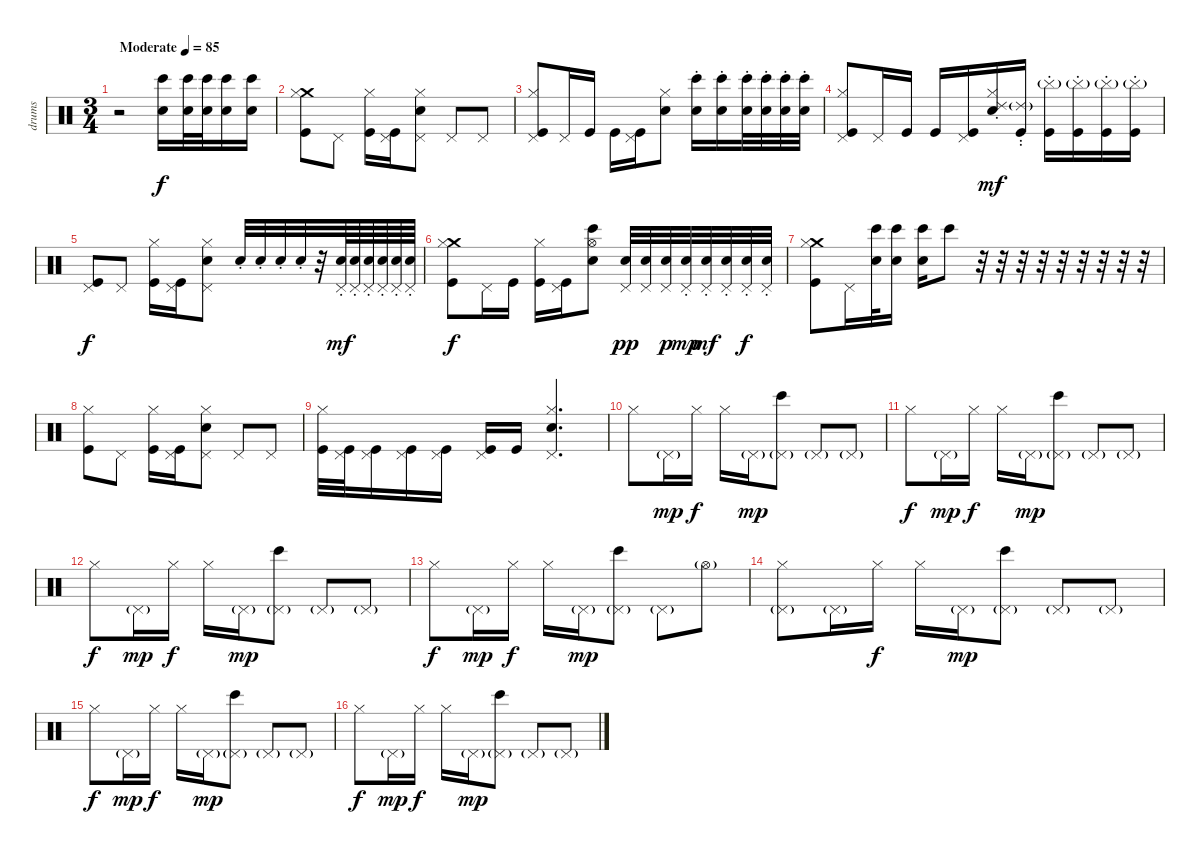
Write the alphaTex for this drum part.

\track ("drums" "drums") {instrument percussion}
\staff {score}
\articulation defaults
\ts (3 4)
\tempo (85 "Moderate")
\clef neutral
\ks c
r.2{dy f} ("Bongo High (hit)" "Snare (hit) 2").16 ("Bongo High (hit)" "Snare (hit) 2").32 ("Bongo High (hit)" "Snare (hit) 2").32 ("Bongo High (hit)" "Snare (hit) 2").16 ("Bongo High (hit)" "Snare (hit) 2").16 |
("Crash medium (hit)" "Kick (hit)" "Hi-Hat (closed)").8 "Pedal Hi-Hat (hit)".8 ("Kick (hit)" "Hi-Hat (closed)").16 ("Kick (hit)" "Pedal Hi-Hat (hit)").16 ("Hi-Hat (closed)" "Snare (hit) 2" "Pedal Hi-Hat (hit)").8 "Pedal Hi-Hat (hit)".8 "Pedal Hi-Hat (hit)".8 |
("Hi-Hat (closed)" "Kick (hit)" "Pedal Hi-Hat (hit)").8 "Pedal Hi-Hat (hit)".16 "Kick (hit)".16 "Kick (hit)".16 ("Kick (hit)" "Pedal Hi-Hat (hit)").16 ("Hi-Hat (closed)" "Snare (hit) 2").8 ("Snare (hit) 2"{st} "Bongo High (hit)"{st}).16 ("Snare (hit) 2"{st} "Bongo High (hit)"{st}).16 ("Snare (hit) 2" "Bongo High (hit)"{st}).32 ("Snare (hit) 2"{st} "Bongo High (hit)"{st}).32 ("Snare (hit) 2"{st} "Bongo High (hit)"{st}).32 ("Snare (hit) 2"{st} "Bongo High (hit)"{st}).32 |
("Hi-Hat (closed)" "Kick (hit)" "Pedal Hi-Hat (hit)").8 "Pedal Hi-Hat (hit)".16 "Kick (hit)".16 "Kick (hit)".16 ("Kick (hit)" "Pedal Hi-Hat (hit)").16 ("Hi-Hat (closed)" "Snare (hit) 2" "Ride (choke) 2").16{dy mf} ("Kick (hit)" "Ride (choke) 2"{g st}).16 ("Kick (hit)" "Cymbal (hit)"{g st}).16 ("Kick (hit)" "Cymbal (hit)"{g st}).16 ("Kick (hit)" "Cymbal (hit)"{g st}).16 ("Kick (hit)" "Cymbal (hit)"{g st}).16 |
("Kick (hit)" "Pedal Hi-Hat (hit)").8{dy f} "Pedal Hi-Hat (hit)".8 ("Kick (hit)" "Hi-Hat (closed)").16 ("Kick (hit)" "Pedal Hi-Hat (hit)").16 ("Hi-Hat (closed)" "Snare (hit) 2" "Pedal Hi-Hat (hit)").8 "Snare (hit) 2"{st}.32 "Snare (hit) 2"{st}.32 "Snare (hit) 2"{st}.32 "Snare (hit) 2"{st}.32 r.32 ("Pedal Hi-Hat (hit)"{st} "Snare (hit) 2"{st}).64{dy mf} ("Pedal Hi-Hat (hit)"{st} "Snare (hit) 2"{st}).64 ("Pedal Hi-Hat (hit)"{st} "Snare (hit) 2"{st}).64 ("Pedal Hi-Hat (hit)"{st} "Snare (hit) 2"{st}).64 ("Pedal Hi-Hat (hit)" "Snare (hit) 2"{st}).64 ("Pedal Hi-Hat (hit)"{st} "Snare (hit) 2"{st}).64 |
("Crash medium (hit)" "Kick (hit)" "Hi-Hat (closed)").8{dy f} "Pedal Hi-Hat (hit)".16 "Kick (hit)".16 ("Kick (hit)" "Hi-Hat (closed)").16 ("Kick (hit)" "Pedal Hi-Hat (hit)").16 ("Hi-Hat (open)" "Snare (hit) 2" "Bongo High (hit)").8 ("Snare (hit) 2" "Pedal Hi-Hat (hit)").32{dy pp} ("Snare (hit) 2" "Pedal Hi-Hat (hit)").32 ("Snare (hit) 2" "Pedal Hi-Hat (hit)").32{dy p} ("Snare (hit) 2"{st} "Pedal Hi-Hat (hit)"{st}).32{dy mp} ("Snare (hit) 2"{st} "Pedal Hi-Hat (hit)"{st}).32{dy mf} ("Snare (hit) 2"{st} "Pedal Hi-Hat (hit)"{st}).32 ("Snare (hit) 2"{st} "Pedal Hi-Hat (hit)"{st}).32{dy f} ("Snare (hit) 2"{st} "Pedal Hi-Hat (hit)"{st}).32 |
("Crash medium (hit)" "Kick (hit)" "Hi-Hat (closed)").8 "Pedal Hi-Hat (hit)".16 ("Snare (hit) 2" "Bongo High (hit)").32 ("Snare (hit) 2" "Bongo High (hit)").16 ("Snare (hit) 2" "Bongo High (hit)").16 "Bongo High (hit)".8 r.32 r.32 r.32 r.32 r.32 r.32 r.32 r.32 r.32 |
("Kick (hit)" "Hi-Hat (closed)").8 "Pedal Hi-Hat (hit)".8 ("Kick (hit)" "Hi-Hat (closed)").16 ("Kick (hit)" "Pedal Hi-Hat (hit)").16 ("Hi-Hat (closed)" "Snare (hit) 2" "Pedal Hi-Hat (hit)").8 "Pedal Hi-Hat (hit)".8 "Pedal Hi-Hat (hit)".8 |
("Kick (hit)" "Hi-Hat (closed)").32 ("Kick (hit)" "Pedal Hi-Hat (hit)").32 ("Kick (hit)" "Pedal Hi-Hat (hit)").16 ("Kick (hit)" "Pedal Hi-Hat (hit)").16 ("Kick (hit)" "Pedal Hi-Hat (hit)").16 ("Kick (hit)" "Pedal Hi-Hat (hit)").16 "Kick (hit)".16 ("Hi-Hat (closed)" "Snare (hit) 2" "Pedal Hi-Hat (hit)").4{d} |
"Hi-Hat (closed)".8 "Pedal Hi-Hat (hit)"{g}.16{dy mp} "Hi-Hat (closed)".16{dy f} "Hi-Hat (closed)".16 "Pedal Hi-Hat (hit)"{g}.16{dy mp} ("Bongo High (hit)" "Pedal Hi-Hat (hit)"{g}).8 "Pedal Hi-Hat (hit)"{g}.8 "Pedal Hi-Hat (hit)"{g}.8 |
"Hi-Hat (closed)".8{dy f} "Pedal Hi-Hat (hit)"{g}.16{dy mp} "Hi-Hat (closed)".16{dy f} "Hi-Hat (closed)".16 "Pedal Hi-Hat (hit)"{g}.16{dy mp} ("Bongo High (hit)" "Pedal Hi-Hat (hit)"{g}).8 "Pedal Hi-Hat (hit)"{g}.8 "Pedal Hi-Hat (hit)"{g}.8 |
"Hi-Hat (closed)".8{dy f} "Pedal Hi-Hat (hit)"{g}.16{dy mp} "Hi-Hat (closed)".16{dy f} "Hi-Hat (closed)".16 "Pedal Hi-Hat (hit)"{g}.16{dy mp} ("Bongo High (hit)" "Pedal Hi-Hat (hit)"{g}).8 "Pedal Hi-Hat (hit)"{g}.8 "Pedal Hi-Hat (hit)"{g}.8 |
"Hi-Hat (closed)".8{dy f} "Pedal Hi-Hat (hit)"{g}.16{dy mp} "Hi-Hat (closed)".16{dy f} "Hi-Hat (closed)".16 "Pedal Hi-Hat (hit)"{g}.16{dy mp} ("Bongo High (hit)" "Pedal Hi-Hat (hit)"{g}).8 "Pedal Hi-Hat (hit)"{g}.8 "Hi-Hat (open)"{g}.8 |
("Hi-Hat (closed)" "Pedal Hi-Hat (hit)"{g}).8 "Pedal Hi-Hat (hit)"{g}.16 "Hi-Hat (closed)".16{dy f} "Hi-Hat (closed)".16 "Pedal Hi-Hat (hit)"{g}.16{dy mp} ("Bongo High (hit)" "Pedal Hi-Hat (hit)"{g}).8 "Pedal Hi-Hat (hit)"{g}.8 "Pedal Hi-Hat (hit)"{g}.8 |
"Hi-Hat (closed)".8{dy f} "Pedal Hi-Hat (hit)"{g}.16{dy mp} "Hi-Hat (closed)".16{dy f} "Hi-Hat (closed)".16 "Pedal Hi-Hat (hit)"{g}.16{dy mp} ("Bongo High (hit)" "Pedal Hi-Hat (hit)"{g}).8 "Pedal Hi-Hat (hit)"{g}.8 "Pedal Hi-Hat (hit)"{g}.8 |
"Hi-Hat (closed)".8{dy f} "Pedal Hi-Hat (hit)"{g}.16{dy mp} "Hi-Hat (closed)".16{dy f} "Hi-Hat (closed)".16 "Pedal Hi-Hat (hit)"{g}.16{dy mp} ("Bongo High (hit)" "Pedal Hi-Hat (hit)"{g}).8 "Pedal Hi-Hat (hit)"{g}.8 "Pedal Hi-Hat (hit)"{g}.8
